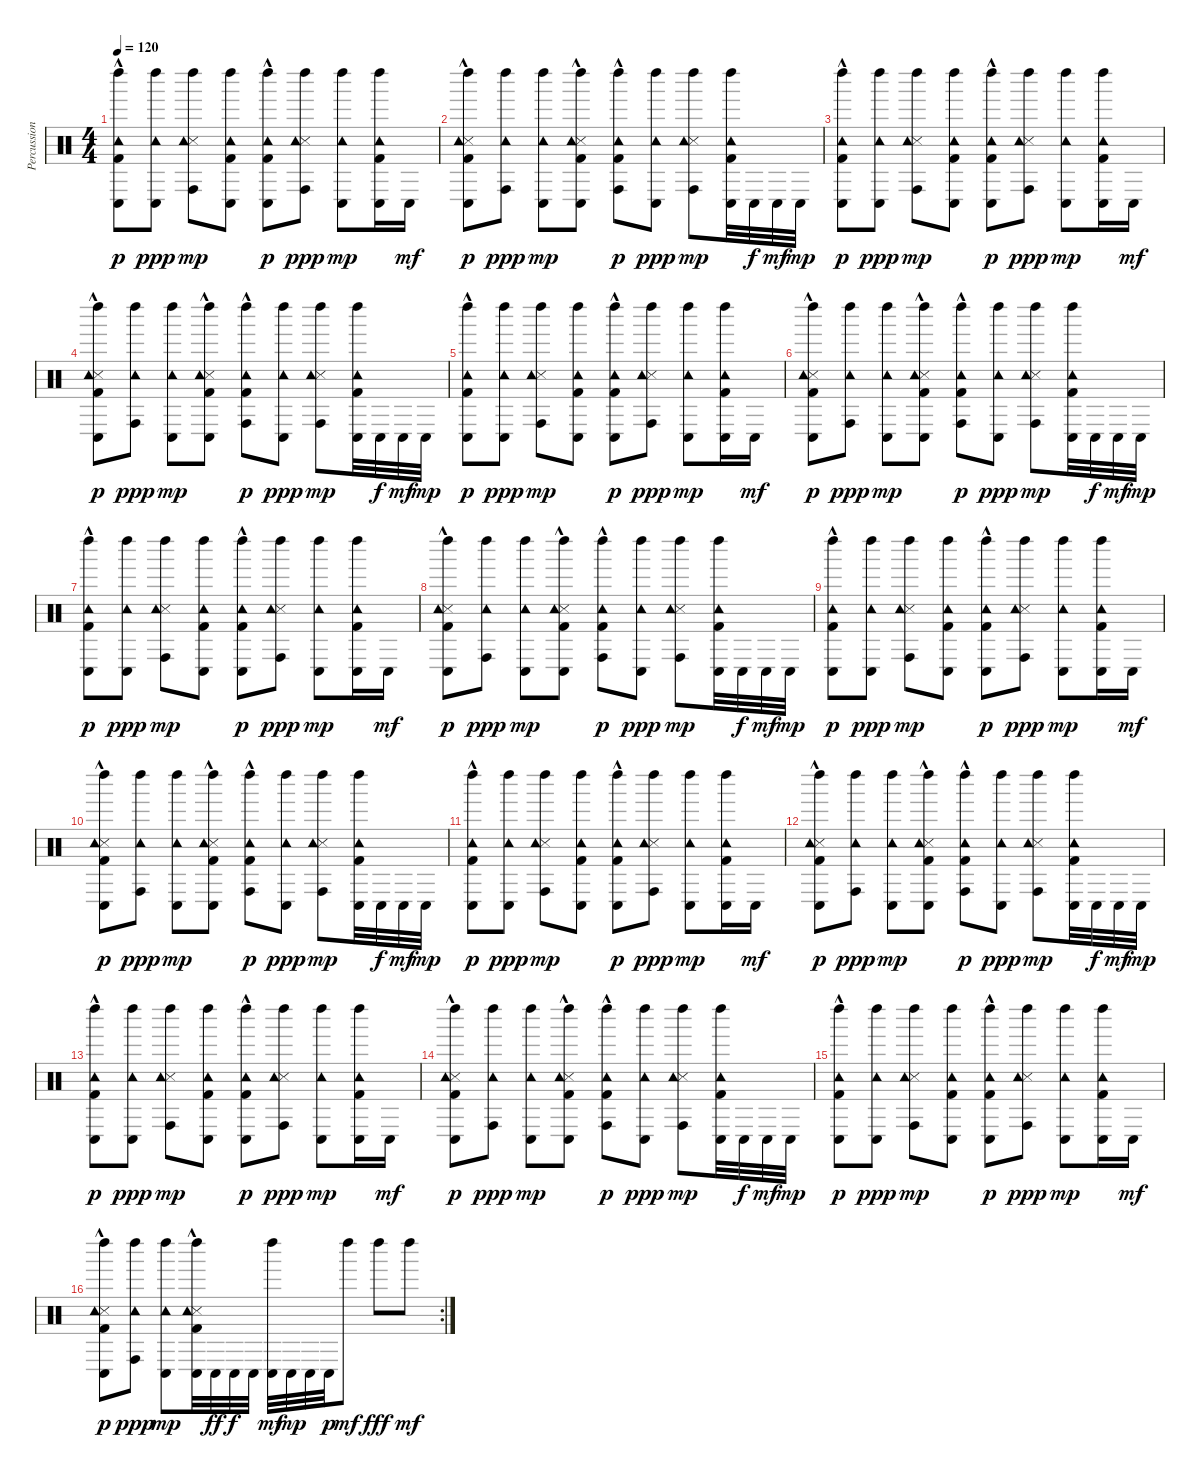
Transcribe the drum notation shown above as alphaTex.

\track ("Percussions" "Percussion") {instrument percussion}
\staff {score}
\articulation defaults
\ts (4 4)
\tempo 120
\clef neutral
\ks c
("Kick (hit) 2"{hac} "Left Maraca (hit)" "Conga low (hit)" "Tambourine (hit)").8{dy p} ("Left Maraca (hit)" "Conga low (hit)" "Tambourine (hit)").8{dy ppp} ("Snare (side stick) 3" "Left Maraca (hit)" "Conga high (hit)" "Tambourine (hit)").8{dy mp} ("Kick (hit) 2" "Left Maraca (hit)" "Conga low (hit)" "Tambourine (hit)").8 ("Kick (hit) 2"{hac} "Left Maraca (hit)" "Conga low (hit)" "Tambourine (hit)").8{dy p} ("Snare (side stick) 3" "Left Maraca (hit)" "Conga high (hit)" "Tambourine (hit)").8{dy ppp} ("Left Maraca (hit)" "Conga low (hit)" "Tambourine (hit)").8{dy mp} ("Kick (hit) 2" "Left Maraca (hit)" "Conga low (hit)" "Tambourine (hit)").16 "Conga low (hit)".16{dy mf} |
("Snare (side stick) 3"{hac} "Kick (hit) 2"{hac} "Left Maraca (hit)" "Conga low (hit)" "Tambourine (hit)").8{dy p} ("Left Maraca (hit)" "Conga high (hit)" "Tambourine (hit)").8{dy ppp} ("Left Maraca (hit)" "Conga low (hit)" "Tambourine (hit)").8{dy mp} ("Snare (side stick) 3"{hac} "Kick (hit) 2" "Left Maraca (hit)" "Conga low (hit)" "Tambourine (hit)").8 ("Kick (hit) 2"{hac} "Left Maraca (hit)" "Conga high (hit)" "Tambourine (hit)").8{dy p} ("Left Maraca (hit)" "Conga low (hit)" "Tambourine (hit)").8{dy ppp} ("Snare (side stick) 3" "Left Maraca (hit)" "Conga high (hit)" "Tambourine (hit)").8{dy mp} ("Kick (hit) 2" "Left Maraca (hit)" "Conga low (hit)" "Tambourine (hit)").32 "Conga low (hit)".32{dy f} "Conga low (hit)".32{dy mf} "Conga low (hit)".32{dy mp} |
("Kick (hit) 2"{hac} "Left Maraca (hit)" "Conga low (hit)" "Tambourine (hit)").8{dy p} ("Left Maraca (hit)" "Conga low (hit)" "Tambourine (hit)").8{dy ppp} ("Snare (side stick) 3" "Left Maraca (hit)" "Conga high (hit)" "Tambourine (hit)").8{dy mp} ("Kick (hit) 2" "Left Maraca (hit)" "Conga low (hit)" "Tambourine (hit)").8 ("Kick (hit) 2"{hac} "Left Maraca (hit)" "Conga low (hit)" "Tambourine (hit)").8{dy p} ("Snare (side stick) 3" "Left Maraca (hit)" "Conga high (hit)" "Tambourine (hit)").8{dy ppp} ("Left Maraca (hit)" "Conga low (hit)" "Tambourine (hit)").8{dy mp} ("Kick (hit) 2" "Left Maraca (hit)" "Conga low (hit)" "Tambourine (hit)").16 "Conga low (hit)".16{dy mf} |
("Snare (side stick) 3"{hac} "Kick (hit) 2"{hac} "Left Maraca (hit)" "Conga low (hit)" "Tambourine (hit)").8{dy p} ("Left Maraca (hit)" "Conga high (hit)" "Tambourine (hit)").8{dy ppp} ("Left Maraca (hit)" "Conga low (hit)" "Tambourine (hit)").8{dy mp} ("Snare (side stick) 3"{hac} "Kick (hit) 2" "Left Maraca (hit)" "Conga low (hit)" "Tambourine (hit)").8 ("Kick (hit) 2"{hac} "Left Maraca (hit)" "Conga high (hit)" "Tambourine (hit)").8{dy p} ("Left Maraca (hit)" "Conga low (hit)" "Tambourine (hit)").8{dy ppp} ("Snare (side stick) 3" "Left Maraca (hit)" "Conga high (hit)" "Tambourine (hit)").8{dy mp} ("Kick (hit) 2" "Left Maraca (hit)" "Conga low (hit)" "Tambourine (hit)").32 "Conga low (hit)".32{dy f} "Conga low (hit)".32{dy mf} "Conga low (hit)".32{dy mp} |
("Kick (hit) 2"{hac} "Left Maraca (hit)" "Conga low (hit)" "Tambourine (hit)").8{dy p} ("Left Maraca (hit)" "Conga low (hit)" "Tambourine (hit)").8{dy ppp} ("Snare (side stick) 3" "Left Maraca (hit)" "Conga high (hit)" "Tambourine (hit)").8{dy mp} ("Kick (hit) 2" "Left Maraca (hit)" "Conga low (hit)" "Tambourine (hit)").8 ("Kick (hit) 2"{hac} "Left Maraca (hit)" "Conga low (hit)" "Tambourine (hit)").8{dy p} ("Snare (side stick) 3" "Left Maraca (hit)" "Conga high (hit)" "Tambourine (hit)").8{dy ppp} ("Left Maraca (hit)" "Conga low (hit)" "Tambourine (hit)").8{dy mp} ("Kick (hit) 2" "Left Maraca (hit)" "Conga low (hit)" "Tambourine (hit)").16 "Conga low (hit)".16{dy mf} |
("Snare (side stick) 3"{hac} "Kick (hit) 2"{hac} "Left Maraca (hit)" "Conga low (hit)" "Tambourine (hit)").8{dy p} ("Left Maraca (hit)" "Conga high (hit)" "Tambourine (hit)").8{dy ppp} ("Left Maraca (hit)" "Conga low (hit)" "Tambourine (hit)").8{dy mp} ("Snare (side stick) 3"{hac} "Kick (hit) 2" "Left Maraca (hit)" "Conga low (hit)" "Tambourine (hit)").8 ("Kick (hit) 2"{hac} "Left Maraca (hit)" "Conga high (hit)" "Tambourine (hit)").8{dy p} ("Left Maraca (hit)" "Conga low (hit)" "Tambourine (hit)").8{dy ppp} ("Snare (side stick) 3" "Left Maraca (hit)" "Conga high (hit)" "Tambourine (hit)").8{dy mp} ("Kick (hit) 2" "Left Maraca (hit)" "Conga low (hit)" "Tambourine (hit)").32 "Conga low (hit)".32{dy f} "Conga low (hit)".32{dy mf} "Conga low (hit)".32{dy mp} |
("Kick (hit) 2"{hac} "Left Maraca (hit)" "Conga low (hit)" "Tambourine (hit)").8{dy p} ("Left Maraca (hit)" "Conga low (hit)" "Tambourine (hit)").8{dy ppp} ("Snare (side stick) 3" "Left Maraca (hit)" "Conga high (hit)" "Tambourine (hit)").8{dy mp} ("Kick (hit) 2" "Left Maraca (hit)" "Conga low (hit)" "Tambourine (hit)").8 ("Kick (hit) 2"{hac} "Left Maraca (hit)" "Conga low (hit)" "Tambourine (hit)").8{dy p} ("Snare (side stick) 3" "Left Maraca (hit)" "Conga high (hit)" "Tambourine (hit)").8{dy ppp} ("Left Maraca (hit)" "Conga low (hit)" "Tambourine (hit)").8{dy mp} ("Kick (hit) 2" "Left Maraca (hit)" "Conga low (hit)" "Tambourine (hit)").16 "Conga low (hit)".16{dy mf} |
("Snare (side stick) 3"{hac} "Kick (hit) 2"{hac} "Left Maraca (hit)" "Conga low (hit)" "Tambourine (hit)").8{dy p} ("Left Maraca (hit)" "Conga high (hit)" "Tambourine (hit)").8{dy ppp} ("Left Maraca (hit)" "Conga low (hit)" "Tambourine (hit)").8{dy mp} ("Snare (side stick) 3"{hac} "Kick (hit) 2" "Left Maraca (hit)" "Conga low (hit)" "Tambourine (hit)").8 ("Kick (hit) 2"{hac} "Left Maraca (hit)" "Conga high (hit)" "Tambourine (hit)").8{dy p} ("Left Maraca (hit)" "Conga low (hit)" "Tambourine (hit)").8{dy ppp} ("Snare (side stick) 3" "Left Maraca (hit)" "Conga high (hit)" "Tambourine (hit)").8{dy mp} ("Kick (hit) 2" "Left Maraca (hit)" "Conga low (hit)" "Tambourine (hit)").32 "Conga low (hit)".32{dy f} "Conga low (hit)".32{dy mf} "Conga low (hit)".32{dy mp} |
("Kick (hit) 2"{hac} "Left Maraca (hit)" "Conga low (hit)" "Tambourine (hit)").8{dy p} ("Left Maraca (hit)" "Conga low (hit)" "Tambourine (hit)").8{dy ppp} ("Snare (side stick) 3" "Left Maraca (hit)" "Conga high (hit)" "Tambourine (hit)").8{dy mp} ("Kick (hit) 2" "Left Maraca (hit)" "Conga low (hit)" "Tambourine (hit)").8 ("Kick (hit) 2"{hac} "Left Maraca (hit)" "Conga low (hit)" "Tambourine (hit)").8{dy p} ("Snare (side stick) 3" "Left Maraca (hit)" "Conga high (hit)" "Tambourine (hit)").8{dy ppp} ("Left Maraca (hit)" "Conga low (hit)" "Tambourine (hit)").8{dy mp} ("Kick (hit) 2" "Left Maraca (hit)" "Conga low (hit)" "Tambourine (hit)").16 "Conga low (hit)".16{dy mf} |
("Snare (side stick) 3"{hac} "Kick (hit) 2"{hac} "Left Maraca (hit)" "Conga low (hit)" "Tambourine (hit)").8{dy p} ("Left Maraca (hit)" "Conga high (hit)" "Tambourine (hit)").8{dy ppp} ("Left Maraca (hit)" "Conga low (hit)" "Tambourine (hit)").8{dy mp} ("Snare (side stick) 3"{hac} "Kick (hit) 2" "Left Maraca (hit)" "Conga low (hit)" "Tambourine (hit)").8 ("Kick (hit) 2"{hac} "Left Maraca (hit)" "Conga high (hit)" "Tambourine (hit)").8{dy p} ("Left Maraca (hit)" "Conga low (hit)" "Tambourine (hit)").8{dy ppp} ("Snare (side stick) 3" "Left Maraca (hit)" "Conga high (hit)" "Tambourine (hit)").8{dy mp} ("Kick (hit) 2" "Left Maraca (hit)" "Conga low (hit)" "Tambourine (hit)").32 "Conga low (hit)".32{dy f} "Conga low (hit)".32{dy mf} "Conga low (hit)".32{dy mp} |
("Kick (hit) 2"{hac} "Left Maraca (hit)" "Conga low (hit)" "Tambourine (hit)").8{dy p} ("Left Maraca (hit)" "Conga low (hit)" "Tambourine (hit)").8{dy ppp} ("Snare (side stick) 3" "Left Maraca (hit)" "Conga high (hit)" "Tambourine (hit)").8{dy mp} ("Kick (hit) 2" "Left Maraca (hit)" "Conga low (hit)" "Tambourine (hit)").8 ("Kick (hit) 2"{hac} "Left Maraca (hit)" "Conga low (hit)" "Tambourine (hit)").8{dy p} ("Snare (side stick) 3" "Left Maraca (hit)" "Conga high (hit)" "Tambourine (hit)").8{dy ppp} ("Left Maraca (hit)" "Conga low (hit)" "Tambourine (hit)").8{dy mp} ("Kick (hit) 2" "Left Maraca (hit)" "Conga low (hit)" "Tambourine (hit)").16 "Conga low (hit)".16{dy mf} |
("Snare (side stick) 3"{hac} "Kick (hit) 2"{hac} "Left Maraca (hit)" "Conga low (hit)" "Tambourine (hit)").8{dy p} ("Left Maraca (hit)" "Conga high (hit)" "Tambourine (hit)").8{dy ppp} ("Left Maraca (hit)" "Conga low (hit)" "Tambourine (hit)").8{dy mp} ("Snare (side stick) 3"{hac} "Kick (hit) 2" "Left Maraca (hit)" "Conga low (hit)" "Tambourine (hit)").8 ("Kick (hit) 2"{hac} "Left Maraca (hit)" "Conga high (hit)" "Tambourine (hit)").8{dy p} ("Left Maraca (hit)" "Conga low (hit)" "Tambourine (hit)").8{dy ppp} ("Snare (side stick) 3" "Left Maraca (hit)" "Conga high (hit)" "Tambourine (hit)").8{dy mp} ("Kick (hit) 2" "Left Maraca (hit)" "Conga low (hit)" "Tambourine (hit)").32 "Conga low (hit)".32{dy f} "Conga low (hit)".32{dy mf} "Conga low (hit)".32{dy mp} |
("Kick (hit) 2"{hac} "Left Maraca (hit)" "Conga low (hit)" "Tambourine (hit)").8{dy p} ("Left Maraca (hit)" "Conga low (hit)" "Tambourine (hit)").8{dy ppp} ("Snare (side stick) 3" "Left Maraca (hit)" "Conga high (hit)" "Tambourine (hit)").8{dy mp} ("Kick (hit) 2" "Left Maraca (hit)" "Conga low (hit)" "Tambourine (hit)").8 ("Kick (hit) 2"{hac} "Left Maraca (hit)" "Conga low (hit)" "Tambourine (hit)").8{dy p} ("Snare (side stick) 3" "Left Maraca (hit)" "Conga high (hit)" "Tambourine (hit)").8{dy ppp} ("Left Maraca (hit)" "Conga low (hit)" "Tambourine (hit)").8{dy mp} ("Kick (hit) 2" "Left Maraca (hit)" "Conga low (hit)" "Tambourine (hit)").16 "Conga low (hit)".16{dy mf} |
("Snare (side stick) 3"{hac} "Kick (hit) 2"{hac} "Left Maraca (hit)" "Conga low (hit)" "Tambourine (hit)").8{dy p} ("Left Maraca (hit)" "Conga high (hit)" "Tambourine (hit)").8{dy ppp} ("Left Maraca (hit)" "Conga low (hit)" "Tambourine (hit)").8{dy mp} ("Snare (side stick) 3"{hac} "Kick (hit) 2" "Left Maraca (hit)" "Conga low (hit)" "Tambourine (hit)").8 ("Kick (hit) 2"{hac} "Left Maraca (hit)" "Conga high (hit)" "Tambourine (hit)").8{dy p} ("Left Maraca (hit)" "Conga low (hit)" "Tambourine (hit)").8{dy ppp} ("Snare (side stick) 3" "Left Maraca (hit)" "Conga high (hit)" "Tambourine (hit)").8{dy mp} ("Kick (hit) 2" "Left Maraca (hit)" "Conga low (hit)" "Tambourine (hit)").32 "Conga low (hit)".32{dy f} "Conga low (hit)".32{dy mf} "Conga low (hit)".32{dy mp} |
("Kick (hit) 2"{hac} "Left Maraca (hit)" "Conga low (hit)" "Tambourine (hit)").8{dy p} ("Left Maraca (hit)" "Conga low (hit)" "Tambourine (hit)").8{dy ppp} ("Snare (side stick) 3" "Left Maraca (hit)" "Conga high (hit)" "Tambourine (hit)").8{dy mp} ("Kick (hit) 2" "Left Maraca (hit)" "Conga low (hit)" "Tambourine (hit)").8 ("Kick (hit) 2"{hac} "Left Maraca (hit)" "Conga low (hit)" "Tambourine (hit)").8{dy p} ("Snare (side stick) 3" "Left Maraca (hit)" "Conga high (hit)" "Tambourine (hit)").8{dy ppp} ("Left Maraca (hit)" "Conga low (hit)" "Tambourine (hit)").8{dy mp} ("Kick (hit) 2" "Left Maraca (hit)" "Conga low (hit)" "Tambourine (hit)").16 "Conga low (hit)".16{dy mf} |
\rc 2
("Snare (side stick) 3"{hac} "Kick (hit) 2"{hac} "Left Maraca (hit)" "Conga low (hit)" "Tambourine (hit)").8{dy p} ("Left Maraca (hit)" "Conga high (hit)" "Tambourine (hit)").8{dy ppp} ("Left Maraca (hit)" "Conga low (hit)" "Tambourine (hit)").8{dy mp} ("Snare (side stick) 3"{hac} "Kick (hit) 2" "Left Maraca (hit)" "Conga low (hit)" "Tambourine (hit)").32 "Conga low (hit)".32{dy ff} "Conga low (hit)".32{dy f} "Conga low (hit)".32 ("Left Maraca (hit)" "Conga low (hit)").32{dy mf} "Conga low (hit)".32{dy mp} "Conga low (hit)".32 "Conga low (hit)".32{dy p} "Left Maraca (hit)".8{dy mf} "Left Maraca (hit)".8{dy fff} "Left Maraca (hit)".8{dy mf}
